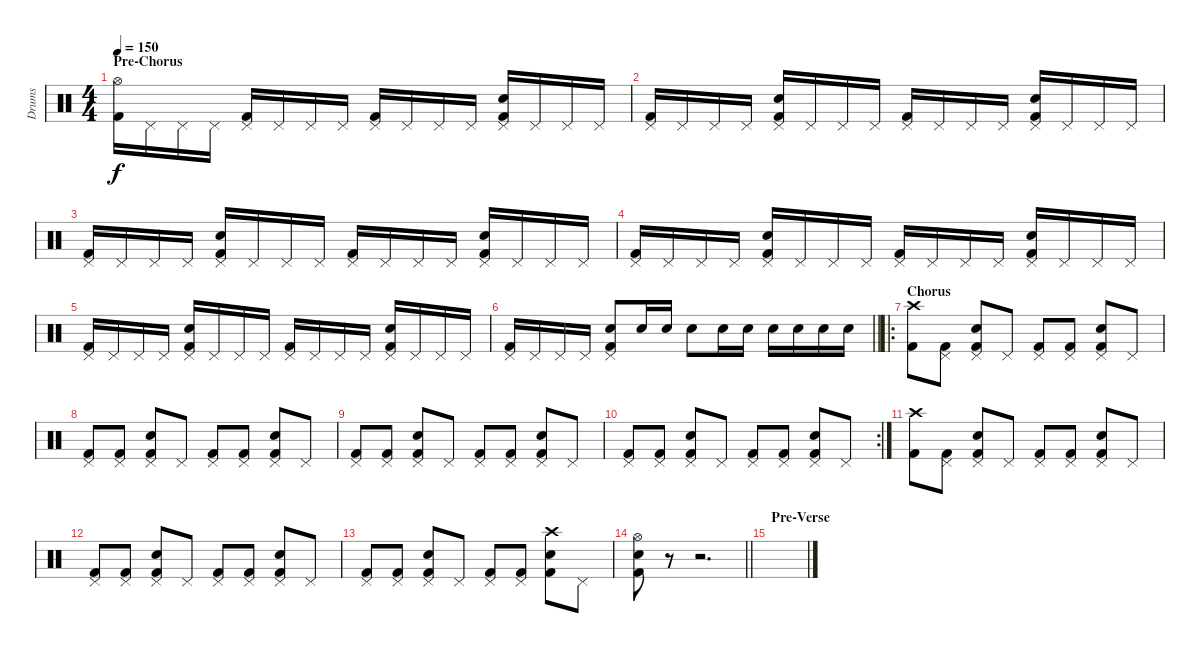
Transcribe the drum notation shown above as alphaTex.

\track ("Drums" "Drums") {instrument percussion}
\staff {score}
\articulation defaults
\ts (4 4)
\section ("" "Pre-Chorus")
\tempo 150
\clef neutral
\ks c
("Hi-Hat (open)" "Kick (hit) 2").16{dy f} "Pedal Hi-Hat (hit)".16 "Pedal Hi-Hat (hit)".16 "Pedal Hi-Hat (hit)".16 ("Pedal Hi-Hat (hit)" "Kick (hit) 2").16 "Pedal Hi-Hat (hit)".16 "Pedal Hi-Hat (hit)".16 "Pedal Hi-Hat (hit)".16 ("Pedal Hi-Hat (hit)" "Kick (hit) 2").16 "Pedal Hi-Hat (hit)".16 "Pedal Hi-Hat (hit)".16 "Pedal Hi-Hat (hit)".16 ("Pedal Hi-Hat (hit)" "Snare (hit) 2" "Kick (hit) 2").16 "Pedal Hi-Hat (hit)".16 "Pedal Hi-Hat (hit)".16 "Pedal Hi-Hat (hit)".16 |
("Pedal Hi-Hat (hit)" "Kick (hit) 2").16 "Pedal Hi-Hat (hit)".16 "Pedal Hi-Hat (hit)".16 "Pedal Hi-Hat (hit)".16 ("Pedal Hi-Hat (hit)" "Snare (hit) 2" "Kick (hit) 2").16 "Pedal Hi-Hat (hit)".16 "Pedal Hi-Hat (hit)".16 "Pedal Hi-Hat (hit)".16 ("Pedal Hi-Hat (hit)" "Kick (hit) 2").16 "Pedal Hi-Hat (hit)".16 "Pedal Hi-Hat (hit)".16 "Pedal Hi-Hat (hit)".16 ("Pedal Hi-Hat (hit)" "Snare (hit) 2" "Kick (hit) 2").16 "Pedal Hi-Hat (hit)".16 "Pedal Hi-Hat (hit)".16 "Pedal Hi-Hat (hit)".16 |
("Pedal Hi-Hat (hit)" "Kick (hit) 2").16 "Pedal Hi-Hat (hit)".16 "Pedal Hi-Hat (hit)".16 "Pedal Hi-Hat (hit)".16 ("Pedal Hi-Hat (hit)" "Snare (hit) 2" "Kick (hit) 2").16 "Pedal Hi-Hat (hit)".16 "Pedal Hi-Hat (hit)".16 "Pedal Hi-Hat (hit)".16 ("Pedal Hi-Hat (hit)" "Kick (hit) 2").16 "Pedal Hi-Hat (hit)".16 "Pedal Hi-Hat (hit)".16 "Pedal Hi-Hat (hit)".16 ("Pedal Hi-Hat (hit)" "Snare (hit) 2" "Kick (hit) 2").16 "Pedal Hi-Hat (hit)".16 "Pedal Hi-Hat (hit)".16 "Pedal Hi-Hat (hit)".16 |
("Pedal Hi-Hat (hit)" "Kick (hit) 2").16 "Pedal Hi-Hat (hit)".16 "Pedal Hi-Hat (hit)".16 "Pedal Hi-Hat (hit)".16 ("Pedal Hi-Hat (hit)" "Snare (hit) 2" "Kick (hit) 2").16 "Pedal Hi-Hat (hit)".16 "Pedal Hi-Hat (hit)".16 "Pedal Hi-Hat (hit)".16 ("Pedal Hi-Hat (hit)" "Kick (hit) 2").16 "Pedal Hi-Hat (hit)".16 "Pedal Hi-Hat (hit)".16 "Pedal Hi-Hat (hit)".16 ("Pedal Hi-Hat (hit)" "Snare (hit) 2" "Kick (hit) 2").16 "Pedal Hi-Hat (hit)".16 "Pedal Hi-Hat (hit)".16 "Pedal Hi-Hat (hit)".16 |
("Pedal Hi-Hat (hit)" "Kick (hit) 2").16 "Pedal Hi-Hat (hit)".16 "Pedal Hi-Hat (hit)".16 "Pedal Hi-Hat (hit)".16 ("Pedal Hi-Hat (hit)" "Snare (hit) 2" "Kick (hit) 2").16 "Pedal Hi-Hat (hit)".16 "Pedal Hi-Hat (hit)".16 "Pedal Hi-Hat (hit)".16 ("Pedal Hi-Hat (hit)" "Kick (hit) 2").16 "Pedal Hi-Hat (hit)".16 "Pedal Hi-Hat (hit)".16 "Pedal Hi-Hat (hit)".16 ("Pedal Hi-Hat (hit)" "Snare (hit) 2" "Kick (hit) 2").16 "Pedal Hi-Hat (hit)".16 "Pedal Hi-Hat (hit)".16 "Pedal Hi-Hat (hit)".16 |
\barLineRight lightlight
("Pedal Hi-Hat (hit)" "Kick (hit) 2").16 "Pedal Hi-Hat (hit)".16 "Pedal Hi-Hat (hit)".16 "Pedal Hi-Hat (hit)".16 ("Pedal Hi-Hat (hit)" "Snare (hit) 2" "Kick (hit) 2").8 "Snare (hit) 2".16 "Snare (hit) 2".16 "Snare (hit) 2".8 "Snare (hit) 2".16 "Snare (hit) 2".16 "Snare (hit) 2".16 "Snare (hit) 2".16 "Snare (hit) 2".16 "Snare (hit) 2".16 |
\ro
\section ("" "Chorus")
("Crash high (hit)" "Kick (hit) 2").8 ("Pedal Hi-Hat (hit)" "Kick (hit) 2").8 ("Pedal Hi-Hat (hit)" "Snare (hit) 2" "Kick (hit) 2").8 "Pedal Hi-Hat (hit)".8 ("Pedal Hi-Hat (hit)" "Kick (hit) 2").8 ("Pedal Hi-Hat (hit)" "Kick (hit) 2").8 ("Pedal Hi-Hat (hit)" "Snare (hit) 2" "Kick (hit) 2").8 "Pedal Hi-Hat (hit)".8 |
("Pedal Hi-Hat (hit)" "Kick (hit) 2").8 ("Pedal Hi-Hat (hit)" "Kick (hit) 2").8 ("Pedal Hi-Hat (hit)" "Snare (hit) 2" "Kick (hit) 2").8 "Pedal Hi-Hat (hit)".8 ("Pedal Hi-Hat (hit)" "Kick (hit) 2").8 ("Pedal Hi-Hat (hit)" "Kick (hit) 2").8 ("Pedal Hi-Hat (hit)" "Snare (hit) 2" "Kick (hit) 2").8 "Pedal Hi-Hat (hit)".8 |
("Pedal Hi-Hat (hit)" "Kick (hit) 2").8 ("Pedal Hi-Hat (hit)" "Kick (hit) 2").8 ("Pedal Hi-Hat (hit)" "Snare (hit) 2" "Kick (hit) 2").8 "Pedal Hi-Hat (hit)".8 ("Pedal Hi-Hat (hit)" "Kick (hit) 2").8 ("Pedal Hi-Hat (hit)" "Kick (hit) 2").8 ("Pedal Hi-Hat (hit)" "Snare (hit) 2" "Kick (hit) 2").8 "Pedal Hi-Hat (hit)".8 |
\rc 2
("Pedal Hi-Hat (hit)" "Kick (hit) 2").8 ("Pedal Hi-Hat (hit)" "Kick (hit) 2").8 ("Pedal Hi-Hat (hit)" "Snare (hit) 2" "Kick (hit) 2").8 "Pedal Hi-Hat (hit)".8 ("Pedal Hi-Hat (hit)" "Kick (hit) 2").8 ("Pedal Hi-Hat (hit)" "Kick (hit) 2").8 ("Pedal Hi-Hat (hit)" "Snare (hit) 2" "Kick (hit) 2").8 "Pedal Hi-Hat (hit)".8 |
("Crash high (hit)" "Kick (hit) 2").8 ("Pedal Hi-Hat (hit)" "Kick (hit) 2").8 ("Pedal Hi-Hat (hit)" "Snare (hit) 2" "Kick (hit) 2").8 "Pedal Hi-Hat (hit)".8 ("Pedal Hi-Hat (hit)" "Kick (hit) 2").8 ("Pedal Hi-Hat (hit)" "Kick (hit) 2").8 ("Pedal Hi-Hat (hit)" "Snare (hit) 2" "Kick (hit) 2").8 "Pedal Hi-Hat (hit)".8 |
("Pedal Hi-Hat (hit)" "Kick (hit) 2").8 ("Pedal Hi-Hat (hit)" "Kick (hit) 2").8 ("Pedal Hi-Hat (hit)" "Snare (hit) 2" "Kick (hit) 2").8 "Pedal Hi-Hat (hit)".8 ("Pedal Hi-Hat (hit)" "Kick (hit) 2").8 ("Pedal Hi-Hat (hit)" "Kick (hit) 2").8 ("Pedal Hi-Hat (hit)" "Snare (hit) 2" "Kick (hit) 2").8 "Pedal Hi-Hat (hit)".8 |
("Pedal Hi-Hat (hit)" "Kick (hit) 2").8 ("Pedal Hi-Hat (hit)" "Kick (hit) 2").8 ("Pedal Hi-Hat (hit)" "Snare (hit) 2" "Kick (hit) 2").8 "Pedal Hi-Hat (hit)".8 ("Pedal Hi-Hat (hit)" "Kick (hit) 2").8 ("Pedal Hi-Hat (hit)" "Kick (hit) 2").8 ("Crash high (hit)" "Snare (hit) 2" "Kick (hit) 2").8 "Pedal Hi-Hat (hit)".8 |
\barLineRight lightlight
("Hi-Hat (open)" "Snare (hit) 2" "Kick (hit) 2").8 r.8 r.2{d} |
\section ("" "Pre-Verse")
